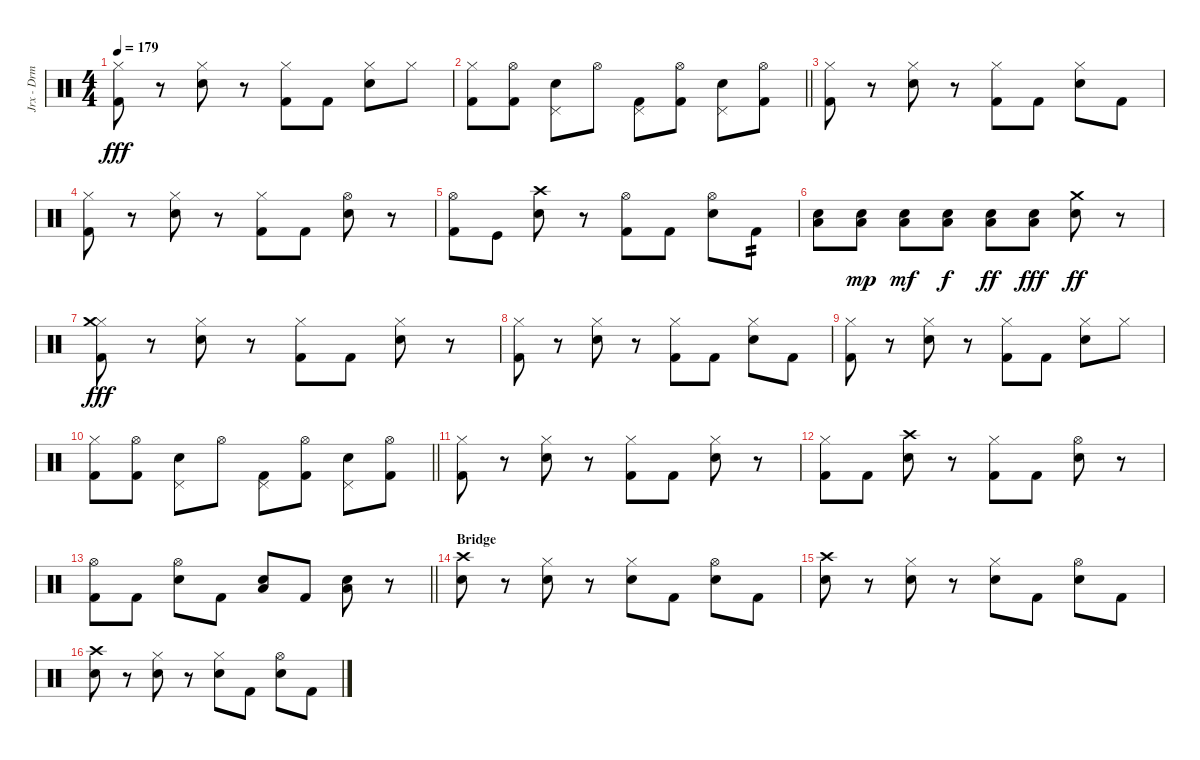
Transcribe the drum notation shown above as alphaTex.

\track ("Jrx - Drm" "Jrx - Drm") {instrument percussion}
\staff {score}
\articulation defaults
\ts (4 4)
\tempo 179
\clef neutral
\ks c
("Hi-Hat (closed)" "Kick (hit) 2").8{dy fff} r.8 ("Hi-Hat (closed)" "Snare (hit) 2").8 r.8 ("Hi-Hat (closed)" "Kick (hit) 2").8 "Kick (hit) 2".8 ("Hi-Hat (closed)" "Snare (hit) 2").8 "Hi-Hat (closed)".8 |
\barLineRight lightlight
("Hi-Hat (closed)" "Kick (hit) 2").8 ("Hi-Hat (open)" "Kick (hit) 2").8 ("Pedal Hi-Hat (hit)" "Snare (hit) 2").8 "Hi-Hat (open)".8 ("Pedal Hi-Hat (hit)" "Kick (hit) 2").8 ("Hi-Hat (open)" "Kick (hit) 2").8 ("Pedal Hi-Hat (hit)" "Snare (hit) 2").8 ("Hi-Hat (open)" "Kick (hit) 2").8 |
("Hi-Hat (closed)" "Kick (hit) 2").8 r.8 ("Hi-Hat (closed)" "Snare (hit) 2").8 r.8 ("Hi-Hat (closed)" "Kick (hit) 2").8 "Kick (hit) 2".8 ("Hi-Hat (closed)" "Snare (hit) 2").8 "Kick (hit) 2".8 |
("Hi-Hat (closed)" "Kick (hit) 2").8 r.8 ("Hi-Hat (closed)" "Snare (hit) 2").8 r.8 ("Hi-Hat (closed)" "Kick (hit) 2").8 "Kick (hit) 2".8 ("Hi-Hat (open)" "Snare (hit) 2").8 r.8 |
("Hi-Hat (open)" "Kick (hit) 2").8 "Kick (hit)".8 ("Snare (hit) 2" "Crash high (hit)").8 r.8 ("Hi-Hat (open)" "Kick (hit) 2").8 "Kick (hit) 2".8 ("Hi-Hat (open)" "Snare (hit) 2").8 "Kick (hit) 2".8{tp 2} |
("Snare (hit) 2" "Low Floor Tom (hit)").8 ("Snare (hit) 2" "Low Floor Tom (hit)").8{dy mp} ("Snare (hit) 2" "Low Floor Tom (hit)").8{dy mf} ("Snare (hit) 2" "Low Floor Tom (hit)").8{dy f} ("Snare (hit) 2" "Low Floor Tom (hit)").8{dy ff} ("Snare (hit) 2" "Low Floor Tom (hit)").8{dy fff} ("Snare (hit) 2" "Crash medium (hit)").8{dy ff} r.8 |
("Hi-Hat (closed)" "Kick (hit) 2" "Crash medium (hit)").8{dy fff} r.8 ("Hi-Hat (closed)" "Snare (hit) 2").8 r.8 ("Hi-Hat (closed)" "Kick (hit) 2").8 "Kick (hit) 2".8 ("Hi-Hat (closed)" "Snare (hit) 2").8 r.8 |
("Hi-Hat (closed)" "Kick (hit) 2").8 r.8 ("Hi-Hat (closed)" "Snare (hit) 2").8 r.8 ("Hi-Hat (closed)" "Kick (hit) 2").8 "Kick (hit) 2".8 ("Hi-Hat (closed)" "Snare (hit) 2").8 "Kick (hit) 2".8 |
("Hi-Hat (closed)" "Kick (hit) 2").8 r.8 ("Hi-Hat (closed)" "Snare (hit) 2").8 r.8 ("Hi-Hat (closed)" "Kick (hit) 2").8 "Kick (hit) 2".8 ("Hi-Hat (closed)" "Snare (hit) 2").8 "Hi-Hat (closed)".8 |
\barLineRight lightlight
("Hi-Hat (closed)" "Kick (hit) 2").8 ("Hi-Hat (open)" "Kick (hit) 2").8 ("Pedal Hi-Hat (hit)" "Snare (hit) 2").8 "Hi-Hat (open)".8 ("Pedal Hi-Hat (hit)" "Kick (hit) 2").8 ("Hi-Hat (open)" "Kick (hit) 2").8 ("Pedal Hi-Hat (hit)" "Snare (hit) 2").8 ("Hi-Hat (open)" "Kick (hit) 2").8 |
("Hi-Hat (closed)" "Kick (hit) 2").8 r.8 ("Hi-Hat (closed)" "Snare (hit) 2").8 r.8 ("Hi-Hat (closed)" "Kick (hit) 2").8 "Kick (hit) 2".8 ("Hi-Hat (closed)" "Snare (hit) 2").8 r.8 |
("Hi-Hat (closed)" "Kick (hit) 2").8 "Kick (hit) 2".8 ("Snare (hit) 2" "Crash high (hit)").8 r.8 ("Hi-Hat (closed)" "Kick (hit) 2").8 "Kick (hit) 2".8 ("Hi-Hat (open)" "Snare (hit) 2").8 r.8 |
\barLineRight lightlight
("Hi-Hat (open)" "Kick (hit) 2").8 "Kick (hit) 2".8 ("Hi-Hat (open)" "Snare (hit) 2").8 "Kick (hit) 2".8 ("Snare (hit) 2" "Low Floor Tom (hit)").8 "Kick (hit) 2".8 ("Snare (hit) 2" "Low Floor Tom (hit)").8 r.8 |
\section ("" "Bridge")
("Snare (hit) 2" "Crash high (hit)").8 r.8 ("Hi-Hat (closed)" "Snare (hit) 2").8 r.8 ("Hi-Hat (closed)" "Snare (hit) 2").8 "Kick (hit) 2".8 ("Hi-Hat (open)" "Snare (hit) 2").8 "Kick (hit) 2".8 |
("Snare (hit) 2" "Crash high (hit)").8 r.8 ("Hi-Hat (closed)" "Snare (hit) 2").8 r.8 ("Hi-Hat (closed)" "Snare (hit) 2").8 "Kick (hit) 2".8 ("Hi-Hat (open)" "Snare (hit) 2").8 "Kick (hit) 2".8 |
("Snare (hit) 2" "Crash high (hit)").8 r.8 ("Hi-Hat (closed)" "Snare (hit) 2").8 r.8 ("Hi-Hat (closed)" "Snare (hit) 2").8 "Kick (hit) 2".8 ("Hi-Hat (open)" "Snare (hit) 2").8 "Kick (hit) 2".8
